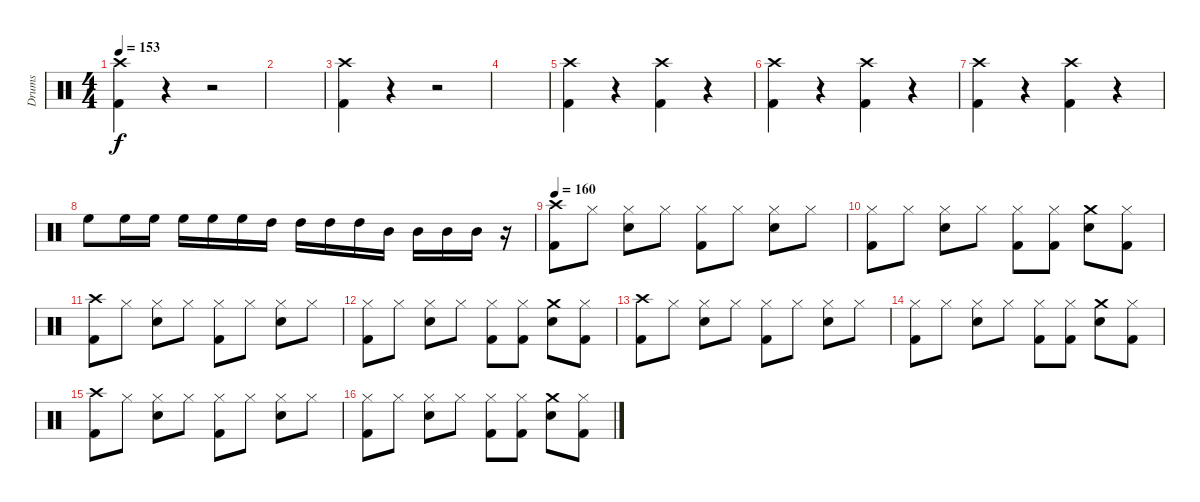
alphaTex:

\track ("Drums" "Drums") {instrument percussion}
\staff {score}
\articulation defaults
\ts (4 4)
\tempo 153
\clef neutral
\ks c
("Crash high (hit)" "Kick (hit) 2").4{dy f volume 12} r.4{volume 0} r.2 |
|
("Crash high (hit)" "Kick (hit) 2").4{volume 12} r.4{volume 0} r.2 |
|
("Crash high (hit)" "Kick (hit) 2").4{volume 12} r.4{volume 0} ("Crash high (hit)" "Kick (hit) 2").4{volume 12} r.4{volume 0} |
("Crash high (hit)" "Kick (hit) 2").4{volume 12} r.4{volume 0} ("Crash high (hit)" "Kick (hit) 2").4{volume 12} r.4{volume 0} |
("Crash high (hit)" "Kick (hit) 2").4{volume 12} r.4{volume 0} ("Crash high (hit)" "Kick (hit) 2").4{volume 12} r.4{volume 0} |
"High Floor Tom (hit)".8{volume 12} "High Floor Tom (hit)".16 "High Floor Tom (hit)".16 "High Floor Tom (hit)".16 "High Floor Tom (hit)".16 "High Floor Tom (hit)".16 "High Tom (hit)".16 "High Tom (hit)".16 "High Tom (hit)".16 "High Tom (hit)".16 "Mid Tom (hit)".16 "Mid Tom (hit)".16 "Mid Tom (hit)".16 "Mid Tom (hit)".16 r.16 |
\tempo 160
("Crash high (hit)" "Kick (hit) 2").8 "Hi-Hat (closed)".8 ("Hi-Hat (closed)" "Electric Snare (hit)").8 "Hi-Hat (closed)".8 ("Hi-Hat (closed)" "Kick (hit) 2").8 "Hi-Hat (closed)".8 ("Hi-Hat (closed)" "Electric Snare (hit)").8 "Hi-Hat (closed)".8 |
("Hi-Hat (closed)" "Kick (hit) 2").8 "Hi-Hat (closed)".8 ("Hi-Hat (closed)" "Electric Snare (hit)").8 "Hi-Hat (closed)".8 ("Hi-Hat (closed)" "Kick (hit) 2").8 ("Hi-Hat (closed)" "Kick (hit) 2").8 ("Crash medium (hit)" "Electric Snare (hit)").8 ("Hi-Hat (closed)" "Kick (hit) 2").8 |
("Crash high (hit)" "Kick (hit) 2").8 "Hi-Hat (closed)".8 ("Hi-Hat (closed)" "Electric Snare (hit)").8 "Hi-Hat (closed)".8 ("Hi-Hat (closed)" "Kick (hit) 2").8 "Hi-Hat (closed)".8 ("Hi-Hat (closed)" "Electric Snare (hit)").8 "Hi-Hat (closed)".8 |
("Hi-Hat (closed)" "Kick (hit) 2").8 "Hi-Hat (closed)".8 ("Hi-Hat (closed)" "Electric Snare (hit)").8 "Hi-Hat (closed)".8 ("Hi-Hat (closed)" "Kick (hit) 2").8 ("Hi-Hat (closed)" "Kick (hit) 2").8 ("Crash medium (hit)" "Electric Snare (hit)").8 ("Hi-Hat (closed)" "Kick (hit) 2").8 |
("Crash high (hit)" "Kick (hit) 2").8 "Hi-Hat (closed)".8 ("Hi-Hat (closed)" "Electric Snare (hit)").8 "Hi-Hat (closed)".8 ("Hi-Hat (closed)" "Kick (hit) 2").8 "Hi-Hat (closed)".8 ("Hi-Hat (closed)" "Electric Snare (hit)").8 "Hi-Hat (closed)".8 |
("Hi-Hat (closed)" "Kick (hit) 2").8 "Hi-Hat (closed)".8 ("Hi-Hat (closed)" "Electric Snare (hit)").8 "Hi-Hat (closed)".8 ("Hi-Hat (closed)" "Kick (hit) 2").8 ("Hi-Hat (closed)" "Kick (hit) 2").8 ("Crash medium (hit)" "Electric Snare (hit)").8 ("Hi-Hat (closed)" "Kick (hit) 2").8 |
("Crash high (hit)" "Kick (hit) 2").8 "Hi-Hat (closed)".8 ("Hi-Hat (closed)" "Electric Snare (hit)").8 "Hi-Hat (closed)".8 ("Hi-Hat (closed)" "Kick (hit) 2").8 "Hi-Hat (closed)".8 ("Hi-Hat (closed)" "Electric Snare (hit)").8 "Hi-Hat (closed)".8 |
("Hi-Hat (closed)" "Kick (hit) 2").8 "Hi-Hat (closed)".8 ("Hi-Hat (closed)" "Electric Snare (hit)").8 "Hi-Hat (closed)".8 ("Hi-Hat (closed)" "Kick (hit) 2").8 ("Hi-Hat (closed)" "Kick (hit) 2").8 ("Crash medium (hit)" "Electric Snare (hit)").8 ("Hi-Hat (closed)" "Kick (hit) 2").8
